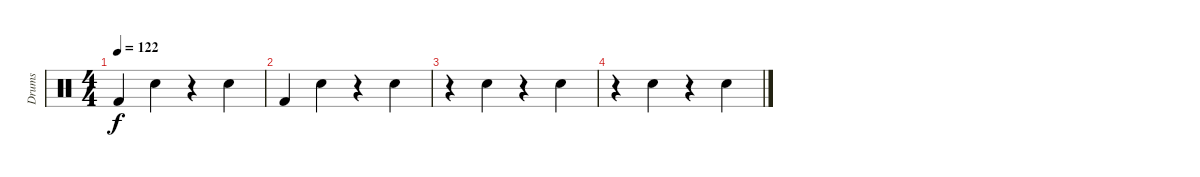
\track ("Drums" "Drums") {instrument percussion}
\staff {score}
\articulation defaults
\ts (4 4)
\tempo 122
\clef neutral
\ks c "Kick (hit) 2".4{dy f} "Hand Clap (hit)".4
r.4 "Hand Clap (hit)".4 |
"Kick (hit) 2".4 "Hand Clap (hit)".4 r.4 "Hand Clap (hit)".4 |
r.4 "Hand Clap (hit)".4 r.4 "Hand Clap (hit)".4 |
r.4 "Hand Clap (hit)".4 r.4 "Hand Clap (hit)".4
